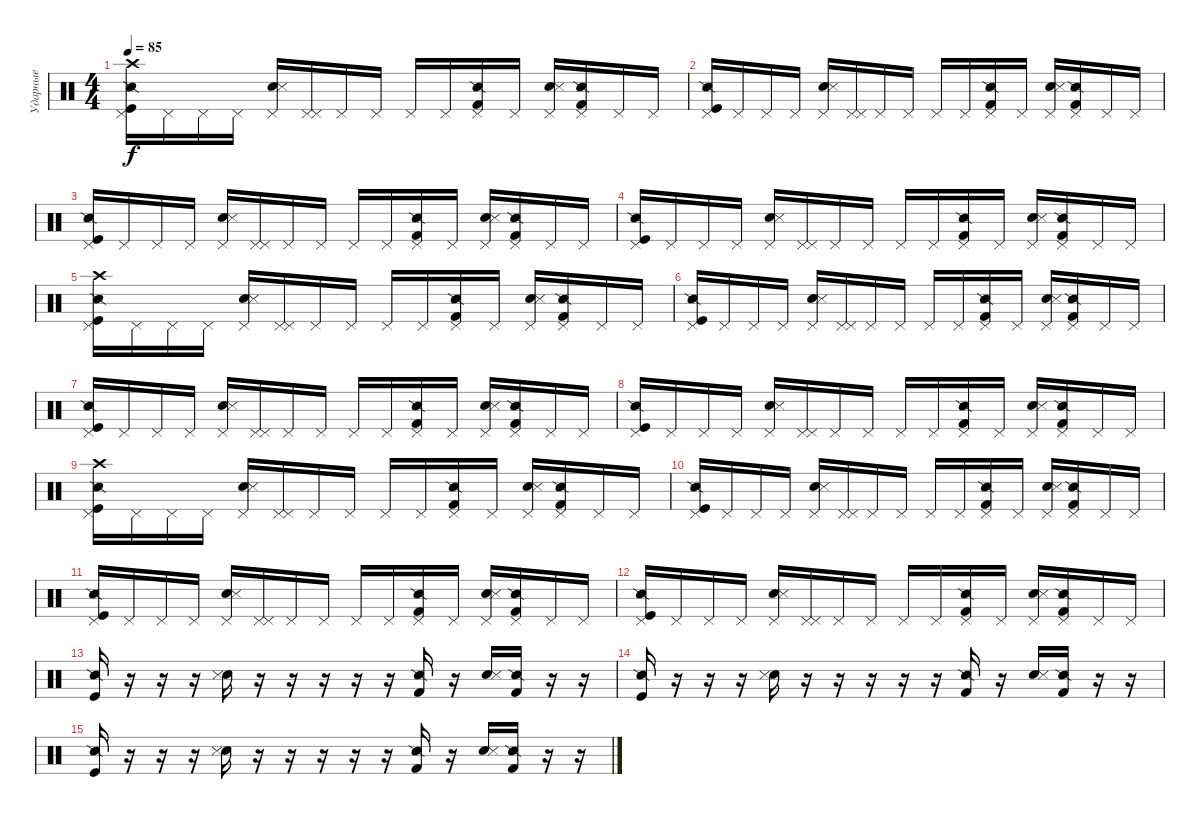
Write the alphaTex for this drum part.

\track ("Ударные" "Ударные") {instrument percussion}
\staff {score}
\articulation defaults
\ts (4 4)
\tempo 85
\clef neutral
\ks c
("Crash high (hit)" "Kick (hit)" "Pedal Hi-Hat (hit)" "Snare (side stick) 2").16{dy f} "Pedal Hi-Hat (hit)".16 "Pedal Hi-Hat (hit)".16 "Pedal Hi-Hat (hit)".16 ("Snare (hit) 2" "Pedal Hi-Hat (hit)" "Snare (side stick) 3").16 ("Pedal Hi-Hat (hit)" "Pedal Hi-Hat (hit)").16 "Pedal Hi-Hat (hit)".16 "Pedal Hi-Hat (hit)".16 "Pedal Hi-Hat (hit)".16 "Pedal Hi-Hat (hit)".16 ("Kick (hit) 2" "Pedal Hi-Hat (hit)" "Snare (side stick) 2").16 "Pedal Hi-Hat (hit)".16 ("Snare (hit) 2" "Pedal Hi-Hat (hit)" "Snare (side stick) 3").16 ("Kick (hit) 2" "Pedal Hi-Hat (hit)" "Snare (side stick) 2").16 "Pedal Hi-Hat (hit)".16 "Pedal Hi-Hat (hit)".16 |
("Kick (hit)" "Pedal Hi-Hat (hit)" "Snare (side stick) 2").16 "Pedal Hi-Hat (hit)".16 "Pedal Hi-Hat (hit)".16 "Pedal Hi-Hat (hit)".16 ("Snare (hit) 2" "Pedal Hi-Hat (hit)" "Snare (side stick) 3").16 ("Pedal Hi-Hat (hit)" "Pedal Hi-Hat (hit)").16 "Pedal Hi-Hat (hit)".16 "Pedal Hi-Hat (hit)".16 "Pedal Hi-Hat (hit)".16 "Pedal Hi-Hat (hit)".16 ("Kick (hit) 2" "Pedal Hi-Hat (hit)" "Snare (side stick) 2").16 "Pedal Hi-Hat (hit)".16 ("Snare (hit) 2" "Pedal Hi-Hat (hit)" "Snare (side stick) 3").16 ("Kick (hit) 2" "Pedal Hi-Hat (hit)" "Snare (side stick) 2").16 "Pedal Hi-Hat (hit)".16 "Pedal Hi-Hat (hit)".16 |
("Kick (hit)" "Pedal Hi-Hat (hit)" "Snare (side stick) 2").16 "Pedal Hi-Hat (hit)".16 "Pedal Hi-Hat (hit)".16 "Pedal Hi-Hat (hit)".16 ("Snare (hit) 2" "Pedal Hi-Hat (hit)" "Snare (side stick) 3").16 ("Pedal Hi-Hat (hit)" "Pedal Hi-Hat (hit)").16 "Pedal Hi-Hat (hit)".16 "Pedal Hi-Hat (hit)".16 "Pedal Hi-Hat (hit)".16 "Pedal Hi-Hat (hit)".16 ("Kick (hit) 2" "Pedal Hi-Hat (hit)" "Snare (side stick) 2").16 "Pedal Hi-Hat (hit)".16 ("Snare (hit) 2" "Pedal Hi-Hat (hit)" "Snare (side stick) 3").16 ("Kick (hit) 2" "Pedal Hi-Hat (hit)" "Snare (side stick) 2").16 "Pedal Hi-Hat (hit)".16 "Pedal Hi-Hat (hit)".16 |
("Kick (hit)" "Pedal Hi-Hat (hit)" "Snare (side stick) 2").16 "Pedal Hi-Hat (hit)".16 "Pedal Hi-Hat (hit)".16 "Pedal Hi-Hat (hit)".16 ("Snare (hit) 2" "Pedal Hi-Hat (hit)" "Snare (side stick) 3").16 ("Pedal Hi-Hat (hit)" "Pedal Hi-Hat (hit)").16 "Pedal Hi-Hat (hit)".16 "Pedal Hi-Hat (hit)".16 "Pedal Hi-Hat (hit)".16 "Pedal Hi-Hat (hit)".16 ("Kick (hit) 2" "Pedal Hi-Hat (hit)" "Snare (side stick) 2").16 "Pedal Hi-Hat (hit)".16 ("Snare (hit) 2" "Pedal Hi-Hat (hit)" "Snare (side stick) 3").16 ("Kick (hit) 2" "Pedal Hi-Hat (hit)" "Snare (side stick) 2").16 "Pedal Hi-Hat (hit)".16 "Pedal Hi-Hat (hit)".16 |
("Crash high (hit)" "Kick (hit)" "Pedal Hi-Hat (hit)" "Snare (side stick) 2").16 "Pedal Hi-Hat (hit)".16 "Pedal Hi-Hat (hit)".16 "Pedal Hi-Hat (hit)".16 ("Snare (hit) 2" "Pedal Hi-Hat (hit)" "Snare (side stick) 3").16 ("Pedal Hi-Hat (hit)" "Pedal Hi-Hat (hit)").16 "Pedal Hi-Hat (hit)".16 "Pedal Hi-Hat (hit)".16 "Pedal Hi-Hat (hit)".16 "Pedal Hi-Hat (hit)".16 ("Kick (hit) 2" "Pedal Hi-Hat (hit)" "Snare (side stick) 2").16 "Pedal Hi-Hat (hit)".16 ("Snare (hit) 2" "Pedal Hi-Hat (hit)" "Snare (side stick) 3").16 ("Kick (hit) 2" "Pedal Hi-Hat (hit)" "Snare (side stick) 2").16 "Pedal Hi-Hat (hit)".16 "Pedal Hi-Hat (hit)".16 |
("Kick (hit)" "Pedal Hi-Hat (hit)" "Snare (side stick) 2").16 "Pedal Hi-Hat (hit)".16 "Pedal Hi-Hat (hit)".16 "Pedal Hi-Hat (hit)".16 ("Snare (hit) 2" "Pedal Hi-Hat (hit)" "Snare (side stick) 3").16 ("Pedal Hi-Hat (hit)" "Pedal Hi-Hat (hit)").16 "Pedal Hi-Hat (hit)".16 "Pedal Hi-Hat (hit)".16 "Pedal Hi-Hat (hit)".16 "Pedal Hi-Hat (hit)".16 ("Kick (hit) 2" "Pedal Hi-Hat (hit)" "Snare (side stick) 2").16 "Pedal Hi-Hat (hit)".16 ("Snare (hit) 2" "Pedal Hi-Hat (hit)" "Snare (side stick) 3").16 ("Kick (hit) 2" "Pedal Hi-Hat (hit)" "Snare (side stick) 2").16 "Pedal Hi-Hat (hit)".16 "Pedal Hi-Hat (hit)".16 |
("Kick (hit)" "Pedal Hi-Hat (hit)" "Snare (side stick) 2").16 "Pedal Hi-Hat (hit)".16 "Pedal Hi-Hat (hit)".16 "Pedal Hi-Hat (hit)".16 ("Snare (hit) 2" "Pedal Hi-Hat (hit)" "Snare (side stick) 3").16 ("Pedal Hi-Hat (hit)" "Pedal Hi-Hat (hit)").16 "Pedal Hi-Hat (hit)".16 "Pedal Hi-Hat (hit)".16 "Pedal Hi-Hat (hit)".16 "Pedal Hi-Hat (hit)".16 ("Kick (hit) 2" "Pedal Hi-Hat (hit)" "Snare (side stick) 2").16 "Pedal Hi-Hat (hit)".16 ("Snare (hit) 2" "Pedal Hi-Hat (hit)" "Snare (side stick) 3").16 ("Kick (hit) 2" "Pedal Hi-Hat (hit)" "Snare (side stick) 2").16 "Pedal Hi-Hat (hit)".16 "Pedal Hi-Hat (hit)".16 |
("Kick (hit)" "Pedal Hi-Hat (hit)" "Snare (side stick) 2").16 "Pedal Hi-Hat (hit)".16 "Pedal Hi-Hat (hit)".16 "Pedal Hi-Hat (hit)".16 ("Snare (hit) 2" "Pedal Hi-Hat (hit)" "Snare (side stick) 3").16 ("Pedal Hi-Hat (hit)" "Pedal Hi-Hat (hit)").16 "Pedal Hi-Hat (hit)".16 "Pedal Hi-Hat (hit)".16 "Pedal Hi-Hat (hit)".16 "Pedal Hi-Hat (hit)".16 ("Kick (hit) 2" "Pedal Hi-Hat (hit)" "Snare (side stick) 2").16 "Pedal Hi-Hat (hit)".16 ("Snare (hit) 2" "Pedal Hi-Hat (hit)" "Snare (side stick) 3").16 ("Kick (hit) 2" "Pedal Hi-Hat (hit)" "Snare (side stick) 2").16 "Pedal Hi-Hat (hit)".16 "Pedal Hi-Hat (hit)".16 |
("Crash high (hit)" "Kick (hit)" "Pedal Hi-Hat (hit)" "Snare (side stick) 2").16 "Pedal Hi-Hat (hit)".16 "Pedal Hi-Hat (hit)".16 "Pedal Hi-Hat (hit)".16 ("Snare (hit) 2" "Pedal Hi-Hat (hit)" "Snare (side stick) 3").16 ("Pedal Hi-Hat (hit)" "Pedal Hi-Hat (hit)").16 "Pedal Hi-Hat (hit)".16 "Pedal Hi-Hat (hit)".16 "Pedal Hi-Hat (hit)".16 "Pedal Hi-Hat (hit)".16 ("Kick (hit) 2" "Pedal Hi-Hat (hit)" "Snare (side stick) 2").16 "Pedal Hi-Hat (hit)".16 ("Snare (hit) 2" "Pedal Hi-Hat (hit)" "Snare (side stick) 3").16 ("Kick (hit) 2" "Pedal Hi-Hat (hit)" "Snare (side stick) 2").16 "Pedal Hi-Hat (hit)".16 "Pedal Hi-Hat (hit)".16 |
("Kick (hit)" "Pedal Hi-Hat (hit)" "Snare (side stick) 2").16 "Pedal Hi-Hat (hit)".16 "Pedal Hi-Hat (hit)".16 "Pedal Hi-Hat (hit)".16 ("Snare (hit) 2" "Pedal Hi-Hat (hit)" "Snare (side stick) 3").16 ("Pedal Hi-Hat (hit)" "Pedal Hi-Hat (hit)").16 "Pedal Hi-Hat (hit)".16 "Pedal Hi-Hat (hit)".16 "Pedal Hi-Hat (hit)".16 "Pedal Hi-Hat (hit)".16 ("Kick (hit) 2" "Pedal Hi-Hat (hit)" "Snare (side stick) 2").16 "Pedal Hi-Hat (hit)".16 ("Snare (hit) 2" "Pedal Hi-Hat (hit)" "Snare (side stick) 3").16 ("Kick (hit) 2" "Pedal Hi-Hat (hit)" "Snare (side stick) 2").16 "Pedal Hi-Hat (hit)".16 "Pedal Hi-Hat (hit)".16 |
("Kick (hit)" "Pedal Hi-Hat (hit)" "Snare (side stick) 2").16 "Pedal Hi-Hat (hit)".16 "Pedal Hi-Hat (hit)".16 "Pedal Hi-Hat (hit)".16 ("Snare (hit) 2" "Pedal Hi-Hat (hit)" "Snare (side stick) 3").16 ("Pedal Hi-Hat (hit)" "Pedal Hi-Hat (hit)").16 "Pedal Hi-Hat (hit)".16 "Pedal Hi-Hat (hit)".16 "Pedal Hi-Hat (hit)".16 "Pedal Hi-Hat (hit)".16 ("Kick (hit) 2" "Pedal Hi-Hat (hit)" "Snare (side stick) 2").16 "Pedal Hi-Hat (hit)".16 ("Snare (hit) 2" "Pedal Hi-Hat (hit)" "Snare (side stick) 3").16 ("Kick (hit) 2" "Pedal Hi-Hat (hit)" "Snare (side stick) 2").16 "Pedal Hi-Hat (hit)".16 "Pedal Hi-Hat (hit)".16 |
("Kick (hit)" "Pedal Hi-Hat (hit)" "Snare (side stick) 2").16 "Pedal Hi-Hat (hit)".16 "Pedal Hi-Hat (hit)".16 "Pedal Hi-Hat (hit)".16 ("Snare (hit) 2" "Pedal Hi-Hat (hit)" "Snare (side stick) 3").16 ("Pedal Hi-Hat (hit)" "Pedal Hi-Hat (hit)").16 "Pedal Hi-Hat (hit)".16 "Pedal Hi-Hat (hit)".16 "Pedal Hi-Hat (hit)".16 "Pedal Hi-Hat (hit)".16 ("Kick (hit) 2" "Pedal Hi-Hat (hit)" "Snare (side stick) 2").16 "Pedal Hi-Hat (hit)".16 ("Snare (hit) 2" "Pedal Hi-Hat (hit)" "Snare (side stick) 3").16 ("Kick (hit) 2" "Pedal Hi-Hat (hit)" "Snare (side stick) 2").16 "Pedal Hi-Hat (hit)".16 "Pedal Hi-Hat (hit)".16 |
("Kick (hit)" "Snare (side stick) 2").16 r.16 r.16 r.16 ("Snare (hit) 2" "Snare (side stick) 3").16 r.16 r.16 r.16 r.16 r.16 ("Kick (hit) 2" "Snare (side stick) 2").16 r.16 ("Snare (hit) 2" "Snare (side stick) 3").16 ("Kick (hit) 2" "Snare (side stick) 2").16 r.16 r.16 |
("Kick (hit)" "Snare (side stick) 2").16 r.16 r.16 r.16 ("Snare (hit) 2" "Snare (side stick) 3").16 r.16 r.16 r.16 r.16 r.16 ("Kick (hit) 2" "Snare (side stick) 2").16 r.16 ("Snare (hit) 2" "Snare (side stick) 3").16 ("Kick (hit) 2" "Snare (side stick) 2").16 r.16 r.16 |
("Kick (hit)" "Snare (side stick) 2").16 r.16 r.16 r.16 ("Snare (hit) 2" "Snare (side stick) 3").16 r.16 r.16 r.16 r.16 r.16 ("Kick (hit) 2" "Snare (side stick) 2").16 r.16 ("Snare (hit) 2" "Snare (side stick) 3").16 ("Kick (hit) 2" "Snare (side stick) 2").16 r.16 r.16
